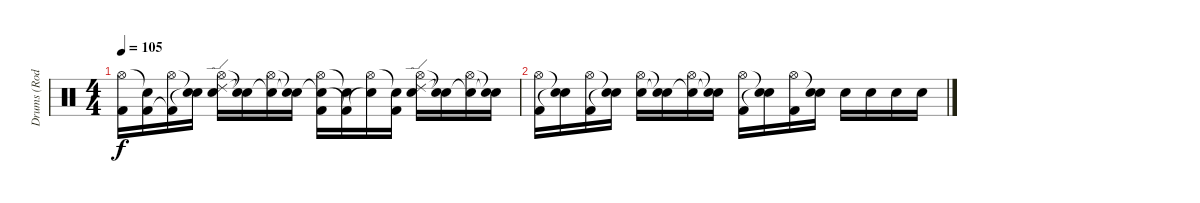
\track ("Drums (Rod Bourdon)" "Drums (Rod") {instrument percussion}
\staff {score}
\articulation defaults
\ts (4 4)
\tempo 105
\clef neutral
\ks c
("Hi-Hat (open)" "Kick (hit) 2").16{dy f} ("Snare (hit)"{t} "Kick (hit) 2").16 ("Hi-Hat (open)" "Kick (hit) 2"{t}).16 ("Snare (hit)"{t} "Snare (hit)"{t}).16 ("Hi-Hat (open)" "Ride (edge) 2" "Electric Snare (hit)").16 ("Snare (hit)"{t} "Snare (hit)"{t}).16 ("Hi-Hat (open)" "Snare (hit)"{t}).16 ("Snare (hit)"{t} "Snare (hit)"{t}).16 ("Hi-Hat (open)" "Snare (hit)"{t} "Kick (hit) 2").16 ("Snare (hit)"{t} "Kick (hit) 2"{t}).16 ("Hi-Hat (open)" "Snare (hit)"{t}).16 ("Snare (hit)"{t} "Kick (hit) 2").16 ("Hi-Hat (open)" "Ride (edge) 2" "Electric Snare (hit)").16 ("Snare (hit)"{t} "Snare (hit)"{t}).16 ("Hi-Hat (open)" "Snare (hit)"{t}).16 ("Snare (hit)"{t} "Snare (hit)"{t}).16 |
("Hi-Hat (open)" "Kick (hit) 2").16 ("Snare (hit)"{t} "Snare (hit)"{t}).16 ("Hi-Hat (open)" "Kick (hit) 2").16 ("Snare (hit)"{t} "Snare (hit)"{t}).16 ("Hi-Hat (open)" "Electric Snare (hit)").16 ("Snare (hit)"{t} "Snare (hit)"{t}).16 ("Hi-Hat (open)" "Snare (hit)"{t}).16 ("Snare (hit)"{t} "Snare (hit)"{t}).16 ("Hi-Hat (open)" "Kick (hit) 2").16 ("Snare (hit)"{t} "Snare (hit)"{t}).16 ("Hi-Hat (open)" "Kick (hit) 2").16 ("Snare (hit)"{t} "Electric Snare (hit)").16 "Electric Snare (hit)".16 "Electric Snare (hit)".16 "Electric Snare (hit)".16 "Electric Snare (hit)".16
